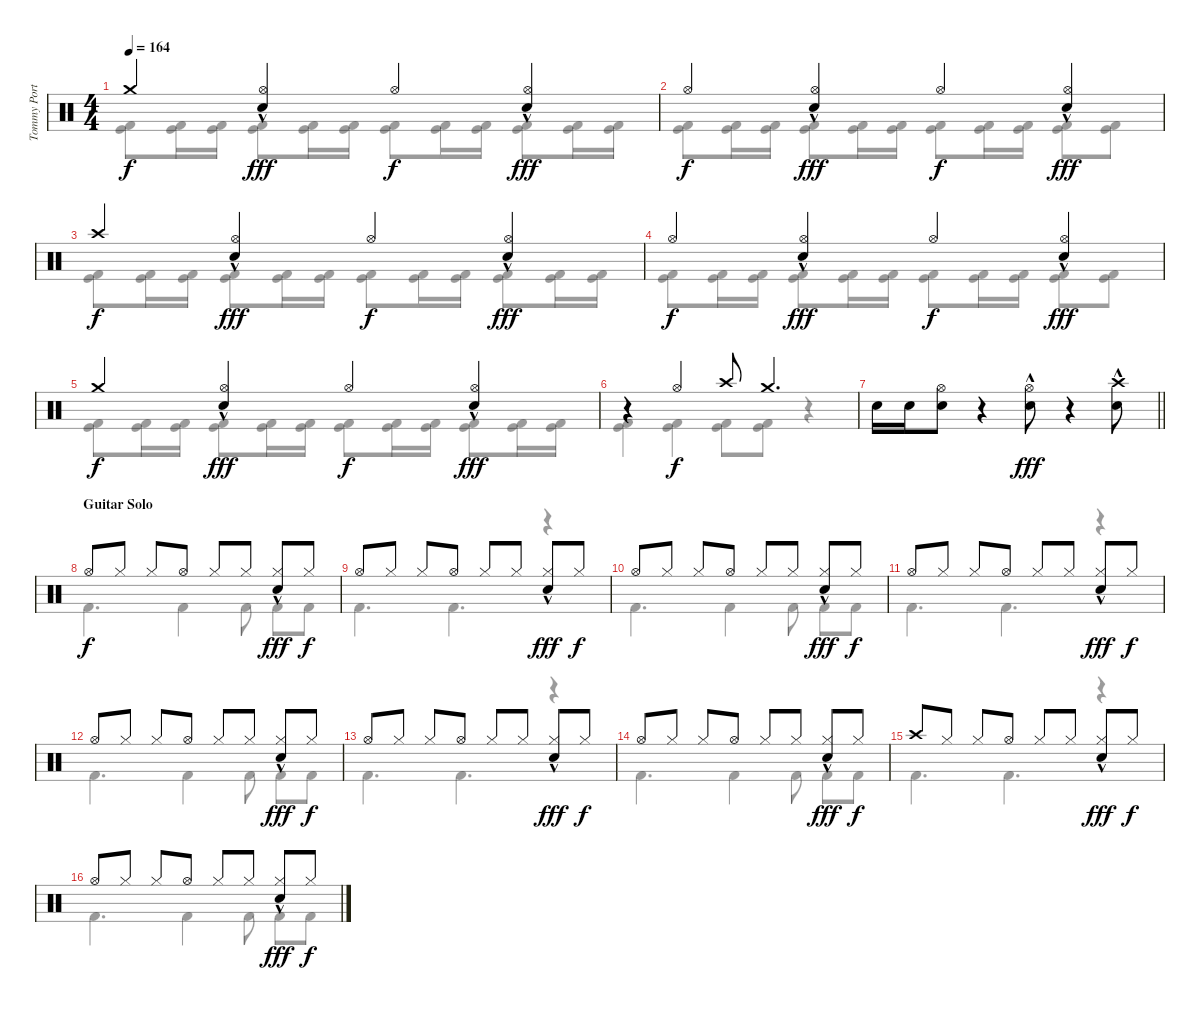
\track ("Tommy Portimo" "Tommy Port") {instrument percussion}
\staff {score}
\articulation defaults
\voice
\ts (4 4)
\tempo 164
\clef neutral
\ks c "Crash medium (hit)".4{dy f}
("Snare (hit) 2"{hac} "Hi-Hat (open)").4{dy fff} "Hi-Hat (open)".4{dy f} ("Snare (hit) 2"{hac} "Hi-Hat (open)").4{dy fff} |
"Hi-Hat (open)".4{dy f} ("Snare (hit) 2"{hac} "Hi-Hat (open)").4{dy fff} "Hi-Hat (open)".4{dy f} ("Snare (hit) 2"{hac} "Hi-Hat (open)").4{dy fff} |
"Crash high (hit)".4{dy f} ("Snare (hit) 2"{hac} "Hi-Hat (open)").4{dy fff} "Hi-Hat (open)".4{dy f} ("Snare (hit) 2"{hac} "Hi-Hat (open)").4{dy fff} |
"Hi-Hat (open)".4{dy f} ("Snare (hit) 2"{hac} "Hi-Hat (open)").4{dy fff} "Hi-Hat (open)".4{dy f} ("Snare (hit) 2"{hac} "Hi-Hat (open)").4{dy fff} |
"Crash medium (hit)".4{dy f} ("Snare (hit) 2"{hac} "Hi-Hat (open)").4{dy fff} "Hi-Hat (open)".4{dy f} ("Snare (hit) 2"{hac} "Hi-Hat (open)").4{dy fff} |
r.4 "Hi-Hat (open)".4{dy f} "Crash high (hit)".8 "Crash medium (hit)".4{d} |
\barLineRight lightlight "Snare (hit) 2".16 "Snare (hit) 2".16
("Snare (hit) 2" "Hi-Hat (open)").8 r.4 ("Snare (hit) 2"{hac} "Hi-Hat (open)").8{dy fff} r.4 ("Snare (hit) 2"{hac} "Crash high (hit)").8 |
\section ("" "Guitar Solo")
"Hi-Hat (open)".8{dy f} "Hi-Hat (closed)".8 "Hi-Hat (closed)".8 "Hi-Hat (open)".8 "Hi-Hat (closed)".8 "Hi-Hat (closed)".8 ("Snare (hit) 2"{hac} "Hi-Hat (closed)").8{dy fff} "Hi-Hat (closed)".8{dy f} |
"Hi-Hat (open)".8 "Hi-Hat (closed)".8 "Hi-Hat (closed)".8 "Hi-Hat (open)".8 "Hi-Hat (closed)".8 "Hi-Hat (closed)".8 ("Snare (hit) 2"{hac} "Hi-Hat (closed)").8{dy fff} "Hi-Hat (closed)".8{dy f} |
"Hi-Hat (open)".8 "Hi-Hat (closed)".8 "Hi-Hat (closed)".8 "Hi-Hat (open)".8 "Hi-Hat (closed)".8 "Hi-Hat (closed)".8 ("Snare (hit) 2"{hac} "Hi-Hat (closed)").8{dy fff} "Hi-Hat (closed)".8{dy f} |
"Hi-Hat (open)".8 "Hi-Hat (closed)".8 "Hi-Hat (closed)".8 "Hi-Hat (open)".8 "Hi-Hat (closed)".8 "Hi-Hat (closed)".8 ("Snare (hit) 2"{hac} "Hi-Hat (closed)").8{dy fff} "Hi-Hat (closed)".8{dy f} |
"Hi-Hat (open)".8 "Hi-Hat (closed)".8 "Hi-Hat (closed)".8 "Hi-Hat (open)".8 "Hi-Hat (closed)".8 "Hi-Hat (closed)".8 ("Snare (hit) 2"{hac} "Hi-Hat (closed)").8{dy fff} "Hi-Hat (closed)".8{dy f} |
"Hi-Hat (open)".8 "Hi-Hat (closed)".8 "Hi-Hat (closed)".8 "Hi-Hat (open)".8 "Hi-Hat (closed)".8 "Hi-Hat (closed)".8 ("Snare (hit) 2"{hac} "Hi-Hat (closed)").8{dy fff} "Hi-Hat (closed)".8{dy f} |
"Hi-Hat (open)".8 "Hi-Hat (closed)".8 "Hi-Hat (closed)".8 "Hi-Hat (open)".8 "Hi-Hat (closed)".8 "Hi-Hat (closed)".8 ("Snare (hit) 2"{hac} "Hi-Hat (closed)").8{dy fff} "Hi-Hat (closed)".8{dy f} |
"Crash high (hit)".8 "Hi-Hat (closed)".8 "Hi-Hat (closed)".8 "Hi-Hat (open)".8 "Hi-Hat (closed)".8 "Hi-Hat (closed)".8 ("Snare (hit) 2"{hac} "Hi-Hat (closed)").8{dy fff} "Hi-Hat (closed)".8{dy f} |
"Hi-Hat (open)".8 "Hi-Hat (closed)".8 "Hi-Hat (closed)".8 "Hi-Hat (open)".8 "Hi-Hat (closed)".8 "Hi-Hat (closed)".8 ("Snare (hit) 2"{hac} "Hi-Hat (closed)").8{dy fff} "Hi-Hat (closed)".8{dy f}
\voice
\clef neutral
\ottava regular
\simile none
\ks c
("Kick (hit)" "Kick (hit) 2").8{dy f} ("Kick (hit)" "Kick (hit) 2").16 ("Kick (hit)" "Kick (hit) 2").16 ("Kick (hit)" "Kick (hit) 2").8 ("Kick (hit)" "Kick (hit) 2").16 ("Kick (hit)" "Kick (hit) 2").16 ("Kick (hit)" "Kick (hit) 2").8 ("Kick (hit)" "Kick (hit) 2").16 ("Kick (hit)" "Kick (hit) 2").16 ("Kick (hit)" "Kick (hit) 2").8 ("Kick (hit)" "Kick (hit) 2").16 ("Kick (hit)" "Kick (hit) 2").16 |
("Kick (hit)" "Kick (hit) 2").8 ("Kick (hit)" "Kick (hit) 2").16 ("Kick (hit)" "Kick (hit) 2").16 ("Kick (hit)" "Kick (hit) 2").8 ("Kick (hit)" "Kick (hit) 2").16 ("Kick (hit)" "Kick (hit) 2").16 ("Kick (hit)" "Kick (hit) 2").8 ("Kick (hit)" "Kick (hit) 2").16 ("Kick (hit)" "Kick (hit) 2").16 ("Kick (hit)" "Kick (hit) 2").8 ("Kick (hit)" "Kick (hit) 2").8 |
("Kick (hit)" "Kick (hit) 2").8 ("Kick (hit)" "Kick (hit) 2").16 ("Kick (hit)" "Kick (hit) 2").16 ("Kick (hit)" "Kick (hit) 2").8 ("Kick (hit)" "Kick (hit) 2").16 ("Kick (hit)" "Kick (hit) 2").16 ("Kick (hit)" "Kick (hit) 2").8 ("Kick (hit)" "Kick (hit) 2").16 ("Kick (hit)" "Kick (hit) 2").16 ("Kick (hit)" "Kick (hit) 2").8 ("Kick (hit)" "Kick (hit) 2").16 ("Kick (hit)" "Kick (hit) 2").16 |
("Kick (hit)" "Kick (hit) 2").8 ("Kick (hit)" "Kick (hit) 2").16 ("Kick (hit)" "Kick (hit) 2").16 ("Kick (hit)" "Kick (hit) 2").8 ("Kick (hit)" "Kick (hit) 2").16 ("Kick (hit)" "Kick (hit) 2").16 ("Kick (hit)" "Kick (hit) 2").8 ("Kick (hit)" "Kick (hit) 2").16 ("Kick (hit)" "Kick (hit) 2").16 ("Kick (hit)" "Kick (hit) 2").8 ("Kick (hit)" "Kick (hit) 2").8 |
("Kick (hit)" "Kick (hit) 2").8 ("Kick (hit)" "Kick (hit) 2").16 ("Kick (hit)" "Kick (hit) 2").16 ("Kick (hit)" "Kick (hit) 2").8 ("Kick (hit)" "Kick (hit) 2").16 ("Kick (hit)" "Kick (hit) 2").16 ("Kick (hit)" "Kick (hit) 2").8 ("Kick (hit)" "Kick (hit) 2").16 ("Kick (hit)" "Kick (hit) 2").16 ("Kick (hit)" "Kick (hit) 2").8 ("Kick (hit)" "Kick (hit) 2").16 ("Kick (hit)" "Kick (hit) 2").16 |
("Kick (hit)" "Kick (hit) 2").4 ("Kick (hit)" "Kick (hit) 2").4 ("Kick (hit)" "Kick (hit) 2").8 ("Kick (hit)" "Kick (hit) 2").8 r.4 |
\barLineRight lightlight
|
"Kick (hit) 2".4{d} "Kick (hit) 2".4 "Kick (hit) 2".8 "Kick (hit) 2".8 "Kick (hit) 2".8 |
"Kick (hit) 2".4{d} "Kick (hit) 2".4{d} r.4 |
"Kick (hit) 2".4{d} "Kick (hit) 2".4 "Kick (hit) 2".8 "Kick (hit) 2".8 "Kick (hit) 2".8 |
"Kick (hit) 2".4{d} "Kick (hit) 2".4{d} r.4 |
"Kick (hit) 2".4{d} "Kick (hit) 2".4 "Kick (hit) 2".8 "Kick (hit) 2".8 "Kick (hit) 2".8 |
"Kick (hit) 2".4{d} "Kick (hit) 2".4{d} r.4 |
"Kick (hit) 2".4{d} "Kick (hit) 2".4 "Kick (hit) 2".8 "Kick (hit) 2".8 "Kick (hit) 2".8 |
"Kick (hit) 2".4{d} "Kick (hit) 2".4{d} r.4 |
"Kick (hit) 2".4{d} "Kick (hit) 2".4 "Kick (hit) 2".8 "Kick (hit) 2".8 "Kick (hit) 2".8
